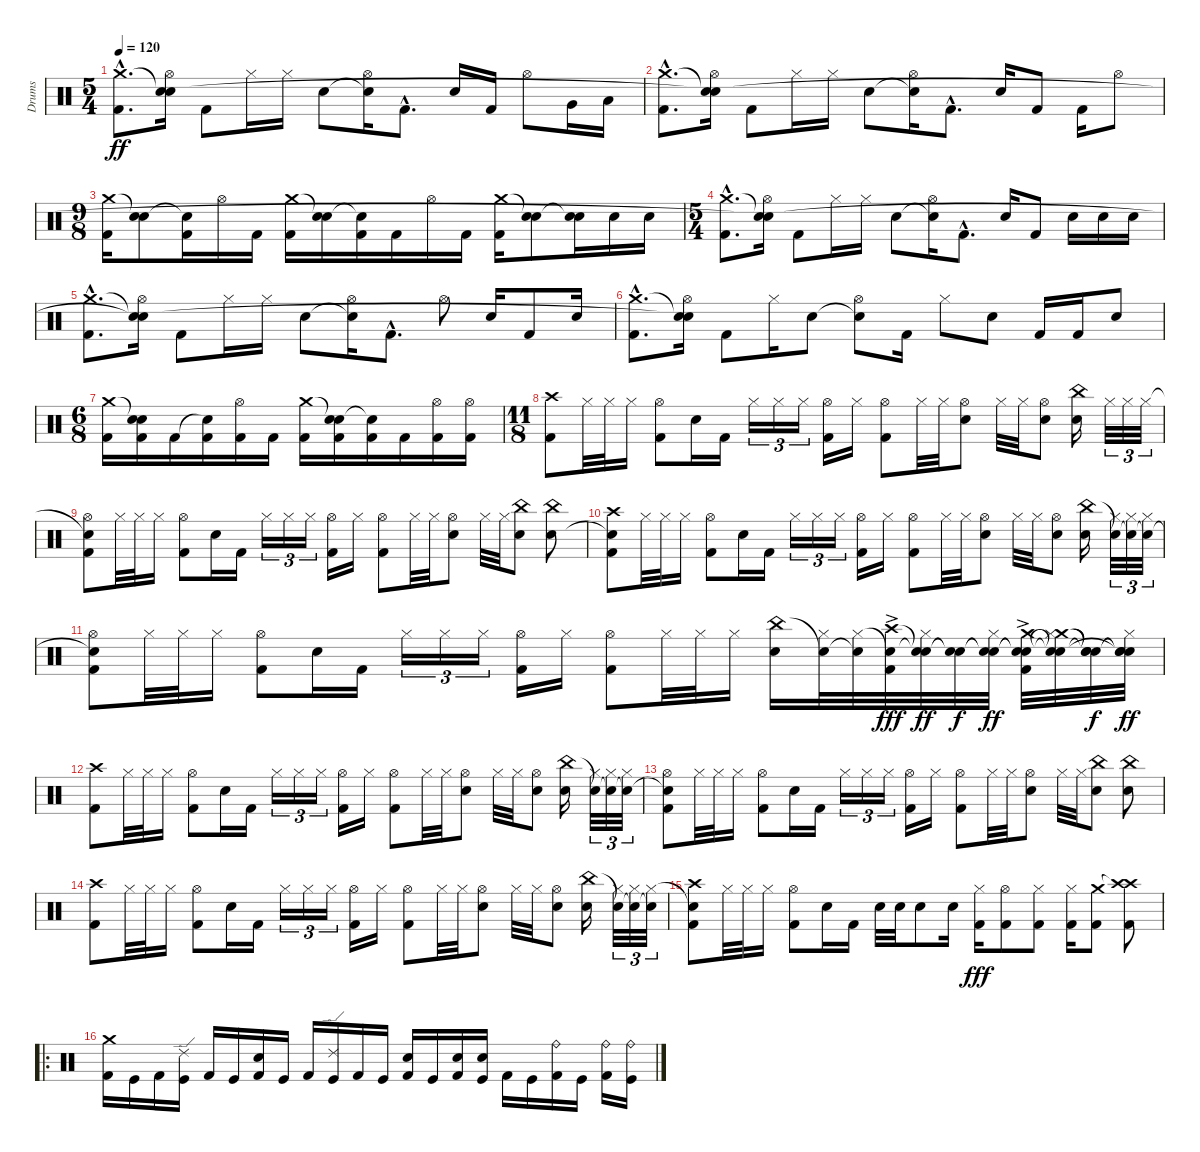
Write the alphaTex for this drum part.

\track ("Drums" "Drums") {instrument percussion}
\staff {score}
\articulation defaults
\ts (5 4)
\tempo 120
\clef neutral
\ks c
("Crash medium (hit)"{hac} "Kick (hit) 2"{hac}).8{d dy ff} ("Snare (hit)"{t} "Hi-Hat (open)" "Snare (hit)"{t}).16 "Kick (hit) 2".8 "Hi-Hat (closed)".16 "Hi-Hat (closed)".16 "Snare (hit) 2".8 ("Snare (hit)"{t} "Hi-Hat (open)").16 "Kick (hit) 2"{hac}.8{d} "Snare (hit) 2".16 "Kick (hit) 2".16 "Hi-Hat (open)".8 "Very Low Tom (hit)".16 "Low Floor Tom (hit)".16 |
("Crash medium (hit)"{hac} "Kick (hit) 2"{hac}).8{d} ("Snare (hit)"{t} "Hi-Hat (open)" "Snare (hit)"{t}).16 "Kick (hit) 2".8 "Hi-Hat (closed)".16 "Hi-Hat (closed)".16 "Snare (hit) 2".8 ("Snare (hit)"{t} "Hi-Hat (open)").16 "Kick (hit) 2"{hac}.8{d} "Snare (hit) 2".16 "Kick (hit) 2".8 "Kick (hit) 2".16 "Hi-Hat (open)".8 |
\ts (9 8)
("Crash medium (hit)" "Kick (hit) 2").16 ("Snare (hit)"{t} "Snare (hit) 2").8 ("Snare (hit)"{t} "Kick (hit) 2").16 "Hi-Hat (open)".16 "Kick (hit) 2".16 ("Crash medium (hit)" "Kick (hit) 2").16 ("Snare (hit)"{t} "Snare (hit) 2").16 ("Snare (hit)"{t} "Kick (hit) 2").16 "Kick (hit) 2".16 "Hi-Hat (open)".16 "Kick (hit) 2".16 ("Crash medium (hit)" "Kick (hit) 2").16 ("Snare (hit)"{t} "Snare (hit) 2").8 ("Snare (hit)"{t} "Snare (hit) 2").16 "Snare (hit) 2".16 "Snare (hit) 2".16 |
\ts (5 4)
("Crash medium (hit)"{hac} "Kick (hit) 2"{hac}).8{d} ("Snare (hit)"{t} "Hi-Hat (open)" "Snare (hit)"{t}).16 "Kick (hit) 2".8 "Hi-Hat (closed)".16 "Hi-Hat (closed)".16 "Snare (hit) 2".8 ("Snare (hit)"{t} "Hi-Hat (open)").16 "Kick (hit) 2"{hac}.8{d} "Snare (hit) 2".16 "Kick (hit) 2".8 "Snare (hit) 2".16 "Snare (hit) 2".16 "Snare (hit) 2".16 |
("Crash medium (hit)"{hac} "Kick (hit) 2"{hac}).8{d} ("Snare (hit)"{t} "Hi-Hat (open)" "Snare (hit)"{t}).16 "Kick (hit) 2".8 "Hi-Hat (closed)".16 "Hi-Hat (closed)".16 "Snare (hit) 2".8 ("Snare (hit)"{t} "Hi-Hat (open)").16 "Kick (hit) 2"{hac}.8{d} "Hi-Hat (open)".8 "Snare (hit) 2".16 "Kick (hit) 2".8 "Snare (hit) 2".16 |
("Crash medium (hit)"{hac} "Kick (hit) 2"{hac}).8{d} ("Snare (hit)"{t} "Hi-Hat (open)" "Snare (hit)"{t}).16 "Kick (hit) 2".8 "Hi-Hat (closed)".16 "Snare (hit) 2".8 ("Snare (hit)"{t} "Hi-Hat (open)").8 "Kick (hit) 2".16 "Hi-Hat (closed)".8 "Snare (hit) 2".8 "Kick (hit) 2".16 "Kick (hit) 2".16 "Snare (hit) 2".8 |
\ts (6 8)
("Crash medium (hit)" "Kick (hit) 2").16 ("Snare (hit)"{t} "Snare (hit) 2" "Kick (hit) 2").16 "Kick (hit) 2".16 ("Snare (hit)"{t} "Kick (hit) 2").16 ("Hi-Hat (open)" "Kick (hit) 2").16 "Kick (hit) 2".16 ("Crash medium (hit)" "Kick (hit) 2").16 ("Snare (hit)"{t} "Snare (hit) 2" "Kick (hit) 2").16 ("Snare (hit)"{t} "Kick (hit) 2").16 "Kick (hit) 2".16 ("Hi-Hat (open)" "Kick (hit) 2").16 ("Hi-Hat (open)" "Kick (hit) 2").16 |
\ts (11 8)
("Crash high (hit)" "Kick (hit) 2").8 "Hi-Hat (closed)".32 "Hi-Hat (closed)".32 "Hi-Hat (closed)".16 ("Hi-Hat (open)" "Kick (hit) 2").8 "Snare (hit) 2".16 "Kick (hit) 2".16 "Hi-Hat (closed)".16{tu (3 2)} "Hi-Hat (closed)".16{tu (3 2)} "Hi-Hat (closed)".16{tu (3 2)} ("Hi-Hat (open)" "Kick (hit) 2").16 "Hi-Hat (closed)".16 ("Hi-Hat (open)" "Kick (hit) 2").8 "Hi-Hat (closed)".32 "Hi-Hat (closed)".32 ("Hi-Hat (open)" "Snare (hit) 2").8 "Hi-Hat (closed)".32 "Hi-Hat (closed)".32 ("Hi-Hat (open)" "Snare (hit) 2").8 ("China (hit)" "Snare (hit) 2").16 "Hi-Hat (closed)".32{tu (3 2)} "Hi-Hat (closed)".32{tu (3 2)} "Hi-Hat (closed)".32{tu (3 2)} |
("Snare (hit)"{t} "Hi-Hat (open)" "Kick (hit) 2").8 "Hi-Hat (closed)".32 "Hi-Hat (closed)".32 "Hi-Hat (closed)".16 ("Hi-Hat (open)" "Kick (hit) 2").8 "Snare (hit) 2".16 "Kick (hit) 2".16 "Hi-Hat (closed)".16{tu (3 2)} "Hi-Hat (closed)".16{tu (3 2)} "Hi-Hat (closed)".16{tu (3 2)} ("Hi-Hat (open)" "Kick (hit) 2").16 "Hi-Hat (closed)".16 ("Hi-Hat (open)" "Kick (hit) 2").8 "Hi-Hat (closed)".32 "Hi-Hat (closed)".32 ("Hi-Hat (open)" "Snare (hit) 2").8 "Hi-Hat (closed)".32 "Hi-Hat (closed)".32 ("China (hit)" "Snare (hit) 2").8 ("China (hit)" "Snare (hit) 2").8 |
("Crash high (hit)" "Snare (hit)"{t} "Kick (hit) 2").8 "Hi-Hat (closed)".32 "Hi-Hat (closed)".32 "Hi-Hat (closed)".16 ("Hi-Hat (open)" "Kick (hit) 2").8 "Snare (hit) 2".16 "Kick (hit) 2".16 "Hi-Hat (closed)".16{tu (3 2)} "Hi-Hat (closed)".16{tu (3 2)} "Hi-Hat (closed)".16{tu (3 2)} ("Hi-Hat (open)" "Kick (hit) 2").16 "Hi-Hat (closed)".16 ("Hi-Hat (open)" "Kick (hit) 2").8 "Hi-Hat (closed)".32 "Hi-Hat (closed)".32 ("Hi-Hat (open)" "Snare (hit) 2").8 "Hi-Hat (closed)".32 "Hi-Hat (closed)".32 ("Hi-Hat (open)" "Snare (hit) 2").8 ("China (hit)" "Snare (hit) 2").16 ("Snare (hit)"{t} "Hi-Hat (closed)").32{tu (3 2)} ("Snare (hit)"{t} "Hi-Hat (closed)").32{tu (3 2)} ("Snare (hit)"{t} "Hi-Hat (closed)").32{tu (3 2)} |
("Snare (hit)"{t} "Hi-Hat (open)" "Kick (hit) 2").8 "Hi-Hat (closed)".32 "Hi-Hat (closed)".32 "Hi-Hat (closed)".16 ("Hi-Hat (open)" "Kick (hit) 2").8 "Snare (hit) 2".16 "Kick (hit) 2".16 "Hi-Hat (closed)".16{tu (3 2)} "Hi-Hat (closed)".16{tu (3 2)} "Hi-Hat (closed)".16{tu (3 2)} ("Hi-Hat (open)" "Kick (hit) 2").16 "Hi-Hat (closed)".16 ("Hi-Hat (open)" "Kick (hit) 2").8 "Hi-Hat (closed)".32 "Hi-Hat (closed)".32 "Hi-Hat (closed)".16 ("China (hit)" "Snare (hit) 2").16 ("Snare (hit)"{t} "Hi-Hat (closed)").32 ("Snare (hit)"{t} "Hi-Hat (closed)").32 ("Crash high (hit)" "Snare (hit)"{t} "Kick (hit) 2"{ac}).32{dy fff} ("Snare (hit)"{t} "Snare (hit)"{t} "Hi-Hat (closed)").32{dy ff} ("Snare (hit)"{t} "Snare (hit)"{t}).32{dy f} ("Snare (hit)"{t} "Snare (hit)"{t} "Hi-Hat (closed)").32{dy ff} ("Snare (hit)"{t} "Snare (hit)"{t} "Kick (hit) 2"{ac} "Crash medium (hit)").32 ("Crash medium (hit)"{t} "Snare (hit)"{t} "Hi-Hat (closed)" "Snare (hit)"{t}).32 ("Snare (hit)"{t} "Snare (hit)"{t} "Snare (hit)"{t}).32{dy f} ("Snare (hit)"{t} "Snare (hit)"{t} "Hi-Hat (closed)" "Snare (hit)"{t}).32{dy ff} |
("Crash high (hit)" "Kick (hit) 2").8 "Hi-Hat (closed)".32 "Hi-Hat (closed)".32 "Hi-Hat (closed)".16 ("Hi-Hat (open)" "Kick (hit) 2").8 "Snare (hit) 2".16 "Kick (hit) 2".16 "Hi-Hat (closed)".16{tu (3 2)} "Hi-Hat (closed)".16{tu (3 2)} "Hi-Hat (closed)".16{tu (3 2)} ("Hi-Hat (open)" "Kick (hit) 2").16 "Hi-Hat (closed)".16 ("Hi-Hat (open)" "Kick (hit) 2").8 "Hi-Hat (closed)".32 "Hi-Hat (closed)".32 ("Hi-Hat (open)" "Snare (hit) 2").8 "Hi-Hat (closed)".32 "Hi-Hat (closed)".32 ("Hi-Hat (open)" "Snare (hit) 2").8 ("China (hit)" "Snare (hit) 2").16 ("Snare (hit)"{t} "Hi-Hat (closed)").32{tu (3 2)} ("Snare (hit)"{t} "Hi-Hat (closed)").32{tu (3 2)} ("Snare (hit)"{t} "Hi-Hat (closed)").32{tu (3 2)} |
("Snare (hit)"{t} "Hi-Hat (open)" "Kick (hit) 2").8 "Hi-Hat (closed)".32 "Hi-Hat (closed)".32 "Hi-Hat (closed)".16 ("Hi-Hat (open)" "Kick (hit) 2").8 "Snare (hit) 2".16 "Kick (hit) 2".16 "Hi-Hat (closed)".16{tu (3 2)} "Hi-Hat (closed)".16{tu (3 2)} "Hi-Hat (closed)".16{tu (3 2)} ("Hi-Hat (open)" "Kick (hit) 2").16 "Hi-Hat (closed)".16 ("Hi-Hat (open)" "Kick (hit) 2").8 "Hi-Hat (closed)".32 "Hi-Hat (closed)".32 ("Hi-Hat (open)" "Snare (hit) 2").8 "Hi-Hat (closed)".32 "Hi-Hat (closed)".32 ("China (hit)" "Snare (hit) 2").8 ("China (hit)" "Snare (hit) 2").8 |
("Crash high (hit)" "Kick (hit) 2").8 "Hi-Hat (closed)".32 "Hi-Hat (closed)".32 "Hi-Hat (closed)".16 ("Hi-Hat (open)" "Kick (hit) 2").8 "Snare (hit) 2".16 "Kick (hit) 2".16 "Hi-Hat (closed)".16{tu (3 2)} "Hi-Hat (closed)".16{tu (3 2)} "Hi-Hat (closed)".16{tu (3 2)} ("Hi-Hat (open)" "Kick (hit) 2").16 "Hi-Hat (closed)".16 ("Hi-Hat (open)" "Kick (hit) 2").8 "Hi-Hat (closed)".32 "Hi-Hat (closed)".32 ("Hi-Hat (open)" "Snare (hit) 2").8 "Hi-Hat (closed)".32 "Hi-Hat (closed)".32 ("Hi-Hat (open)" "Snare (hit) 2").8 ("China (hit)" "Snare (hit) 2").16 ("Snare (hit)"{t} "Hi-Hat (closed)").32{tu (3 2)} ("Snare (hit)"{t} "Hi-Hat (closed)").32{tu (3 2)} ("Snare (hit)"{t} "Hi-Hat (closed)").32{tu (3 2)} |
("Crash high (hit)" "Snare (hit)"{t} "Kick (hit) 2").8 "Hi-Hat (closed)".32 "Hi-Hat (closed)".32 "Hi-Hat (closed)".16 ("Hi-Hat (open)" "Kick (hit) 2").8 "Snare (hit) 2".16 "Kick (hit) 2".16 "Snare (hit) 2".32 "Snare (hit) 2".32 "Snare (hit) 2".8 "Snare (hit) 2".16 ("Hi-Hat (closed)" "Kick (hit) 2").16{dy fff} ("Hi-Hat (open)" "Kick (hit) 2").8 ("Hi-Hat (closed)" "Kick (hit) 2").8 ("Hi-Hat (closed)" "Kick (hit) 2").16 ("Crash medium (hit)" "Kick (hit) 2").8 ("Crash high (hit)"{t} "Crash high (hit)" "Kick (hit) 2").8 |
\ro
("Crash medium (hit)" "Kick (hit) 2").16 "Kick (hit)".16 "Kick (hit) 2".16 ("Ride (edge) 2" "Kick (hit)").16 "Kick (hit) 2".16 "Kick (hit)".16 ("Snare (hit) 2" "Kick (hit) 2").16 "Kick (hit)".16 "Kick (hit) 2".16 ("Ride (edge) 2" "Kick (hit)").16 "Kick (hit) 2".16 "Kick (hit)".16 ("Snare (hit) 2" "Kick (hit) 2").16 "Kick (hit)".16 ("Snare (hit) 2" "Kick (hit) 2").16 ("Snare (hit) 2" "Kick (hit)").16 "Kick (hit) 2".16 "Kick (hit)".16 ("Ride (bell)" "Kick (hit) 2").16 "Kick (hit)".16 ("Ride (bell)" "Kick (hit) 2").16 ("Ride (bell)" "Kick (hit)").16
